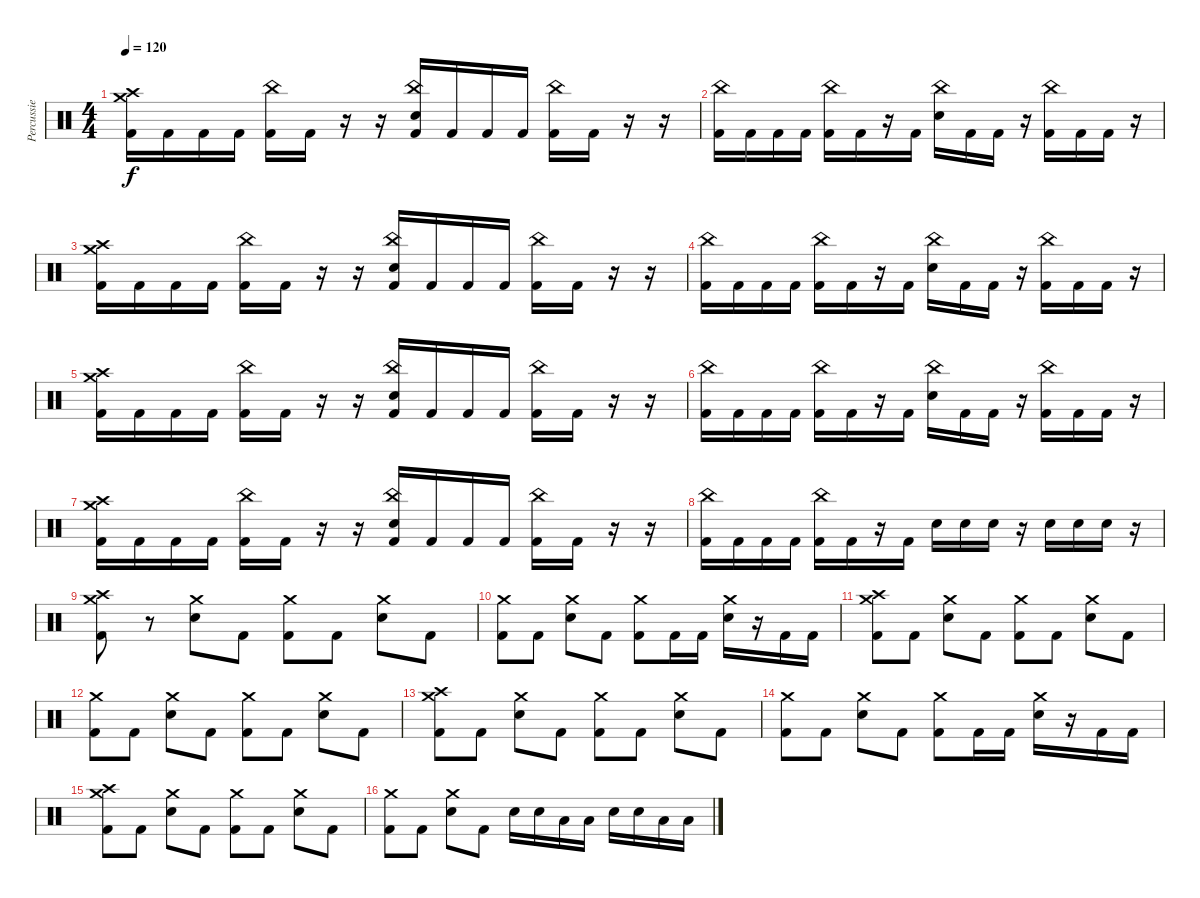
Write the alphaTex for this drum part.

\track ("Percussie" "Percussie") {instrument percussion}
\staff {score}
\articulation defaults
\ts (4 4)
\tempo 120
\clef neutral
\ks c
("Crash medium (hit)" "Crash high (hit)" "Kick (hit) 2").16{dy f} "Kick (hit) 2".16 "Kick (hit) 2".16 "Kick (hit) 2".16 ("China (hit)" "Kick (hit) 2").16 "Kick (hit) 2".16 r.16 r.16 ("China (hit)" "Electric Snare (hit)" "Kick (hit) 2").16 "Kick (hit) 2".16 "Kick (hit) 2".16 "Kick (hit) 2".16 ("China (hit)" "Kick (hit) 2").16 "Kick (hit) 2".16 r.16 r.16 |
("China (hit)" "Kick (hit) 2").16 "Kick (hit) 2".16 "Kick (hit) 2".16 "Kick (hit) 2".16 ("China (hit)" "Kick (hit) 2").16 "Kick (hit) 2".16 r.16 "Kick (hit) 2".16 ("China (hit)" "Electric Snare (hit)").16 "Kick (hit) 2".16 "Kick (hit) 2".16 r.16 ("China (hit)" "Kick (hit) 2").16 "Kick (hit) 2".16 "Kick (hit) 2".16 r.16 |
("Crash medium (hit)" "Crash high (hit)" "Kick (hit) 2").16 "Kick (hit) 2".16 "Kick (hit) 2".16 "Kick (hit) 2".16 ("China (hit)" "Kick (hit) 2").16 "Kick (hit) 2".16 r.16 r.16 ("China (hit)" "Electric Snare (hit)" "Kick (hit) 2").16 "Kick (hit) 2".16 "Kick (hit) 2".16 "Kick (hit) 2".16 ("China (hit)" "Kick (hit) 2").16 "Kick (hit) 2".16 r.16 r.16 |
("China (hit)" "Kick (hit) 2").16 "Kick (hit) 2".16 "Kick (hit) 2".16 "Kick (hit) 2".16 ("China (hit)" "Kick (hit) 2").16 "Kick (hit) 2".16 r.16 "Kick (hit) 2".16 ("China (hit)" "Electric Snare (hit)").16 "Kick (hit) 2".16 "Kick (hit) 2".16 r.16 ("China (hit)" "Kick (hit) 2").16 "Kick (hit) 2".16 "Kick (hit) 2".16 r.16 |
("Crash medium (hit)" "Crash high (hit)" "Kick (hit) 2").16 "Kick (hit) 2".16 "Kick (hit) 2".16 "Kick (hit) 2".16 ("China (hit)" "Kick (hit) 2").16 "Kick (hit) 2".16 r.16 r.16 ("China (hit)" "Electric Snare (hit)" "Kick (hit) 2").16 "Kick (hit) 2".16 "Kick (hit) 2".16 "Kick (hit) 2".16 ("China (hit)" "Kick (hit) 2").16 "Kick (hit) 2".16 r.16 r.16 |
("China (hit)" "Kick (hit) 2").16 "Kick (hit) 2".16 "Kick (hit) 2".16 "Kick (hit) 2".16 ("China (hit)" "Kick (hit) 2").16 "Kick (hit) 2".16 r.16 "Kick (hit) 2".16 ("China (hit)" "Electric Snare (hit)").16 "Kick (hit) 2".16 "Kick (hit) 2".16 r.16 ("China (hit)" "Kick (hit) 2").16 "Kick (hit) 2".16 "Kick (hit) 2".16 r.16 |
("Crash medium (hit)" "Crash high (hit)" "Kick (hit) 2").16 "Kick (hit) 2".16 "Kick (hit) 2".16 "Kick (hit) 2".16 ("China (hit)" "Kick (hit) 2").16 "Kick (hit) 2".16 r.16 r.16 ("China (hit)" "Electric Snare (hit)" "Kick (hit) 2").16 "Kick (hit) 2".16 "Kick (hit) 2".16 "Kick (hit) 2".16 ("China (hit)" "Kick (hit) 2").16 "Kick (hit) 2".16 r.16 r.16 |
("China (hit)" "Kick (hit) 2").16 "Kick (hit) 2".16 "Kick (hit) 2".16 "Kick (hit) 2".16 ("China (hit)" "Kick (hit) 2").16 "Kick (hit) 2".16 r.16 "Kick (hit) 2".16 "Electric Snare (hit)".16 "Electric Snare (hit)".16 "Electric Snare (hit)".16 r.16 "Electric Snare (hit)".16 "Electric Snare (hit)".16 "Electric Snare (hit)".16 r.16 |
("Crash medium (hit)" "Crash high (hit)" "Kick (hit) 2").8 r.8 ("Crash medium (hit)" "Electric Snare (hit)").8 "Kick (hit) 2".8 ("Crash medium (hit)" "Kick (hit) 2").8 "Kick (hit) 2".8 ("Crash medium (hit)" "Electric Snare (hit)").8 "Kick (hit) 2".8 |
("Crash medium (hit)" "Kick (hit) 2").8 "Kick (hit) 2".8 ("Crash medium (hit)" "Electric Snare (hit)").8 "Kick (hit) 2".8 ("Crash medium (hit)" "Kick (hit) 2").8 "Kick (hit) 2".16 "Kick (hit) 2".16 ("Crash medium (hit)" "Electric Snare (hit)").16 r.16 "Kick (hit) 2".16 "Kick (hit) 2".16 |
("Crash medium (hit)" "Crash high (hit)" "Kick (hit) 2").8 "Kick (hit) 2".8 ("Crash medium (hit)" "Electric Snare (hit)").8 "Kick (hit) 2".8 ("Crash medium (hit)" "Kick (hit) 2").8 "Kick (hit) 2".8 ("Crash medium (hit)" "Electric Snare (hit)").8 "Kick (hit) 2".8 |
("Crash medium (hit)" "Kick (hit) 2").8 "Kick (hit) 2".8 ("Crash medium (hit)" "Electric Snare (hit)").8 "Kick (hit) 2".8 ("Crash medium (hit)" "Kick (hit) 2").8 "Kick (hit) 2".8 ("Crash medium (hit)" "Electric Snare (hit)").8 "Kick (hit) 2".8 |
("Crash medium (hit)" "Crash high (hit)" "Kick (hit) 2").8 "Kick (hit) 2".8 ("Crash medium (hit)" "Electric Snare (hit)").8 "Kick (hit) 2".8 ("Crash medium (hit)" "Kick (hit) 2").8 "Kick (hit) 2".8 ("Crash medium (hit)" "Electric Snare (hit)").8 "Kick (hit) 2".8 |
("Crash medium (hit)" "Kick (hit) 2").8 "Kick (hit) 2".8 ("Crash medium (hit)" "Electric Snare (hit)").8 "Kick (hit) 2".8 ("Crash medium (hit)" "Kick (hit) 2").8 "Kick (hit) 2".16 "Kick (hit) 2".16 ("Crash medium (hit)" "Electric Snare (hit)").16 r.16 "Kick (hit) 2".16 "Kick (hit) 2".16 |
("Crash medium (hit)" "Crash high (hit)" "Kick (hit) 2").8 "Kick (hit) 2".8 ("Crash medium (hit)" "Electric Snare (hit)").8 "Kick (hit) 2".8 ("Crash medium (hit)" "Kick (hit) 2").8 "Kick (hit) 2".8 ("Crash medium (hit)" "Electric Snare (hit)").8 "Kick (hit) 2".8 |
("Crash medium (hit)" "Kick (hit) 2").8 "Kick (hit) 2".8 ("Crash medium (hit)" "Electric Snare (hit)").8 "Kick (hit) 2".8 "Electric Snare (hit)".16 "Electric Snare (hit)".16 "Low Tom (hit)".16 "Low Tom (hit)".16 "Electric Snare (hit)".16 "Electric Snare (hit)".16 "Low Floor Tom (hit)".16 "Low Floor Tom (hit)".16
